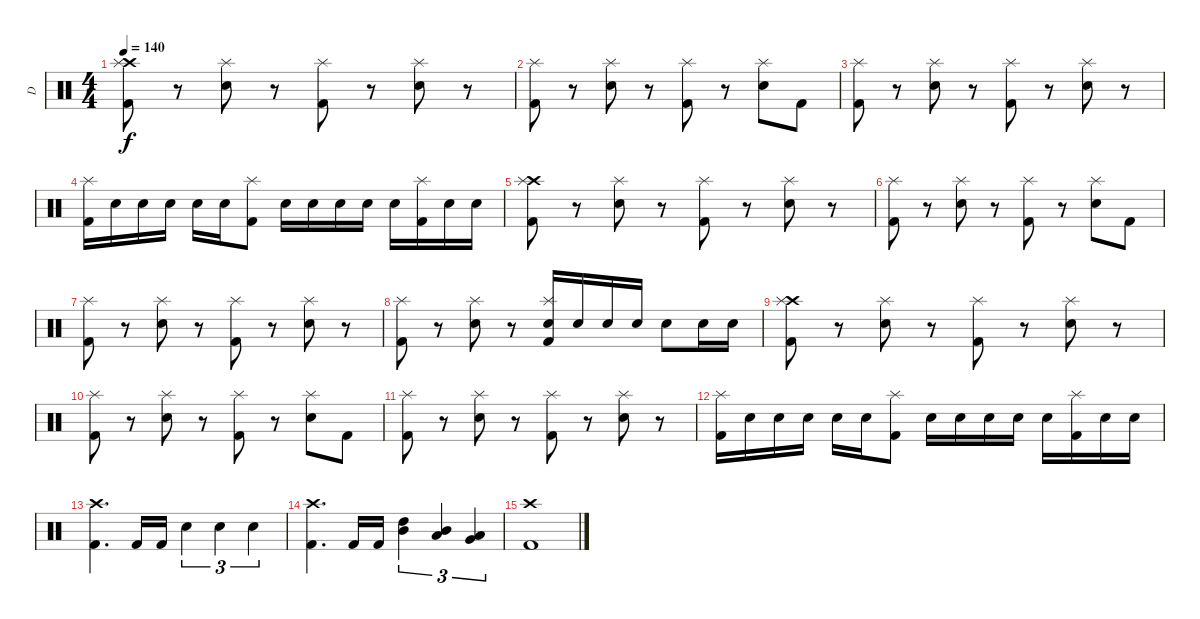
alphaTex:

\track ("D" "D") {instrument percussion}
\staff {score}
\articulation defaults
\ts (4 4)
\tempo 140
\clef neutral
\ks c
("Crash high (hit)" "Kick (hit) 2" "Splash (hit)").8{dy f} r.8 ("Electric Snare (hit)" "Splash (hit)").8 r.8 ("Kick (hit) 2" "Splash (hit)").8 r.8 ("Electric Snare (hit)" "Splash (hit)").8 r.8 |
("Kick (hit) 2" "Splash (hit)").8 r.8 ("Electric Snare (hit)" "Splash (hit)").8 r.8 ("Kick (hit) 2" "Splash (hit)").8 r.8 ("Electric Snare (hit)" "Splash (hit)").8 "Kick (hit) 2".8 |
("Kick (hit) 2" "Splash (hit)").8 r.8 ("Electric Snare (hit)" "Splash (hit)").8 r.8 ("Kick (hit) 2" "Splash (hit)").8 r.8 ("Electric Snare (hit)" "Splash (hit)").8 r.8 |
("Kick (hit) 2" "Splash (hit)").16 "Electric Snare (hit)".16 "Electric Snare (hit)".16 "Electric Snare (hit)".16 "Electric Snare (hit)".16 "Electric Snare (hit)".16 ("Kick (hit) 2" "Splash (hit)").8 "Electric Snare (hit)".16 "Electric Snare (hit)".16 "Electric Snare (hit)".16 "Electric Snare (hit)".16 "Electric Snare (hit)".16 ("Kick (hit) 2" "Splash (hit)").16 "Electric Snare (hit)".16 "Electric Snare (hit)".16 |
("Crash high (hit)" "Kick (hit) 2" "Splash (hit)").8 r.8 ("Electric Snare (hit)" "Splash (hit)").8 r.8 ("Kick (hit) 2" "Splash (hit)").8 r.8 ("Electric Snare (hit)" "Splash (hit)").8 r.8 |
("Kick (hit) 2" "Splash (hit)").8 r.8 ("Electric Snare (hit)" "Splash (hit)").8 r.8 ("Kick (hit) 2" "Splash (hit)").8 r.8 ("Electric Snare (hit)" "Splash (hit)").8 "Kick (hit) 2".8 |
("Kick (hit) 2" "Splash (hit)").8 r.8 ("Electric Snare (hit)" "Splash (hit)").8 r.8 ("Kick (hit) 2" "Splash (hit)").8 r.8 ("Electric Snare (hit)" "Splash (hit)").8 r.8 |
("Kick (hit) 2" "Splash (hit)").8 r.8 ("Electric Snare (hit)" "Splash (hit)").8 r.8 ("Electric Snare (hit)" "Kick (hit) 2" "Splash (hit)").16 "Electric Snare (hit)".16 "Electric Snare (hit)".16 "Electric Snare (hit)".16 "Electric Snare (hit)".8 "Electric Snare (hit)".16 "Electric Snare (hit)".16 |
("Crash high (hit)" "Kick (hit) 2" "Splash (hit)").8 r.8 ("Electric Snare (hit)" "Splash (hit)").8 r.8 ("Kick (hit) 2" "Splash (hit)").8 r.8 ("Electric Snare (hit)" "Splash (hit)").8 r.8 |
("Kick (hit) 2" "Splash (hit)").8 r.8 ("Electric Snare (hit)" "Splash (hit)").8 r.8 ("Kick (hit) 2" "Splash (hit)").8 r.8 ("Electric Snare (hit)" "Splash (hit)").8 "Kick (hit) 2".8 |
("Kick (hit) 2" "Splash (hit)").8 r.8 ("Electric Snare (hit)" "Splash (hit)").8 r.8 ("Kick (hit) 2" "Splash (hit)").8 r.8 ("Electric Snare (hit)" "Splash (hit)").8 r.8 |
("Kick (hit) 2" "Splash (hit)").16 "Electric Snare (hit)".16 "Electric Snare (hit)".16 "Electric Snare (hit)".16 "Electric Snare (hit)".16 "Electric Snare (hit)".16 ("Kick (hit) 2" "Splash (hit)").8 "Electric Snare (hit)".16 "Electric Snare (hit)".16 "Electric Snare (hit)".16 "Electric Snare (hit)".16 "Electric Snare (hit)".16 ("Kick (hit) 2" "Splash (hit)").16 "Electric Snare (hit)".16 "Electric Snare (hit)".16 |
("Crash high (hit)" "Kick (hit) 2").4{d} "Kick (hit) 2".16 "Kick (hit) 2".16 "Electric Snare (hit)".4{tu (3 2)} "Electric Snare (hit)".4{tu (3 2)} "Electric Snare (hit)".4{tu (3 2)} |
("Crash high (hit)" "Kick (hit) 2").4{d} "Kick (hit) 2".16 "Kick (hit) 2".16 ("High Tom (hit)" "Mid Tom (hit)").4{tu (3 2)} ("Mid Tom (hit)" "Low Tom (hit)").4{tu (3 2)} ("Low Tom (hit)" "Very Low Tom (hit)").4{tu (3 2)} |
("Crash high (hit)" "Kick (hit) 2").1
